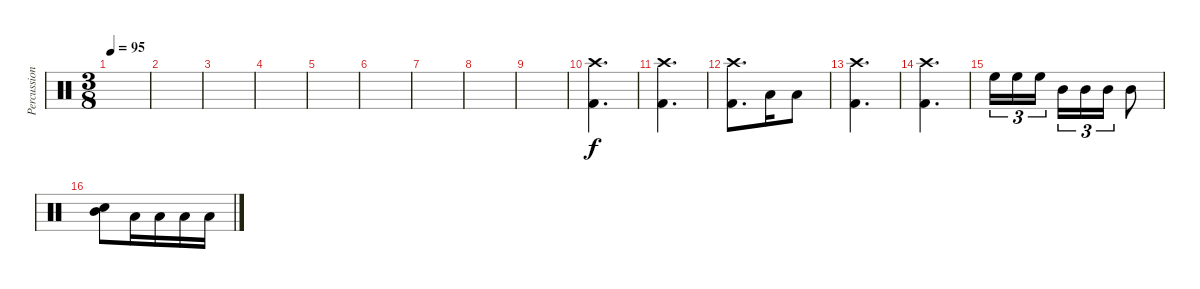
\track ("Percussion" "Percussion") {instrument percussion}
\staff {score}
\articulation defaults
\ts (3 8)
\tempo 95
\clef neutral
\ks c
|
|
|
|
|
|
|
|
|
("Crash high (hit)" "Kick (hit) 2").4{d} |
("Crash high (hit)" "Kick (hit) 2").4{d} |
("Crash high (hit)" "Kick (hit) 2").8{d} "Low Floor Tom (hit)".16 "Low Floor Tom (hit)".8 |
("Crash high (hit)" "Kick (hit) 2").4{d} |
("Crash high (hit)" "Kick (hit) 2").4{d} |
"High Floor Tom (hit)".16{tu (3 2)} "High Floor Tom (hit)".16{tu (3 2)} "High Floor Tom (hit)".16{tu (3 2)} "Mid Tom (hit)".16{tu (3 2)} "Mid Tom (hit)".16{tu (3 2)} "Mid Tom (hit)".16{tu (3 2)} "Mid Tom (hit)".8 |
("Snare (hit) 2" "Mid Tom (hit)").8 "Low Tom (hit)".16 "Low Tom (hit)".16 "Low Tom (hit)".16 "Low Tom (hit)".16
